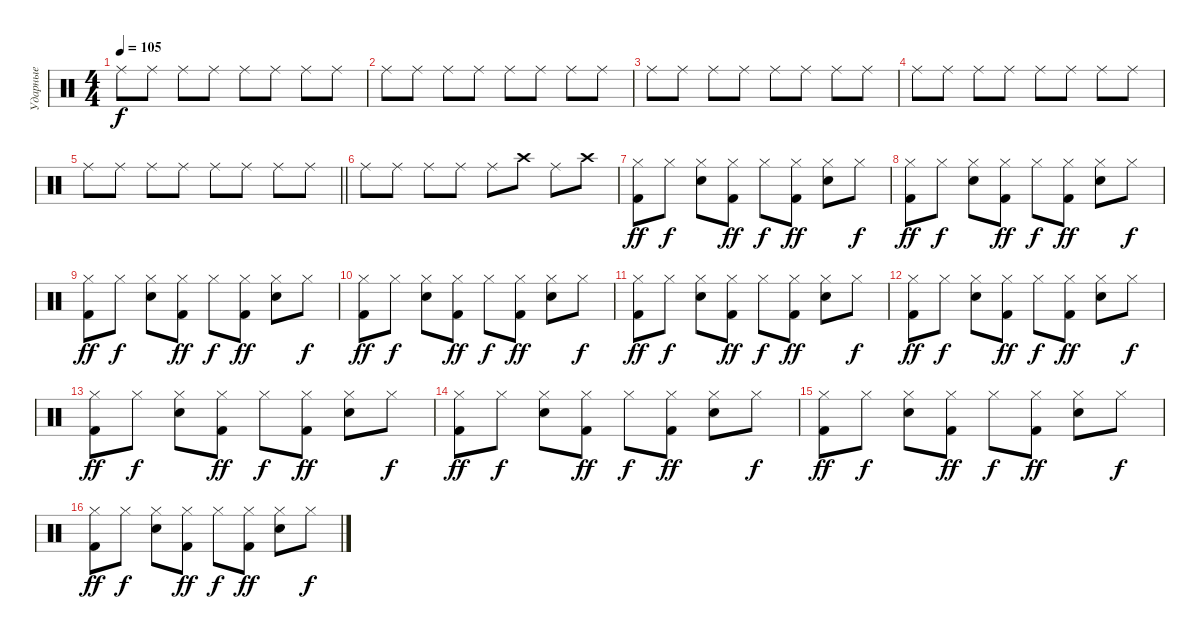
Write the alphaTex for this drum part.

\track ("Ударные" "Ударные") {solo instrument percussion}
\staff {score}
\articulation defaults
\ts (4 4)
\tempo 105
\clef neutral
\ks c "Ride (middle)".8{dy f} "Ride (middle)".8 "Ride (middle)".8 "Ride (middle)".8 "Ride (middle)".8 "Ride (middle)".8 "Ride (middle)".8 "Ride (middle)".8
|
"Ride (middle)".8 "Ride (middle)".8 "Ride (middle)".8 "Ride (middle)".8 "Ride (middle)".8 "Ride (middle)".8 "Ride (middle)".8 "Ride (middle)".8 |
"Ride (middle)".8 "Ride (middle)".8 "Ride (middle)".8 "Ride (middle)".8 "Ride (middle)".8 "Ride (middle)".8 "Ride (middle)".8 "Ride (middle)".8 |
"Ride (middle)".8 "Ride (middle)".8 "Ride (middle)".8 "Ride (middle)".8 "Ride (middle)".8 "Ride (middle)".8 "Ride (middle)".8 "Ride (middle)".8 |
\barLineRight lightlight "Ride (middle)".8 "Ride (middle)".8 "Ride (middle)".8 "Ride (middle)".8 "Ride (middle)".8 "Ride (middle)".8 "Ride (middle)".8 "Ride (middle)".8
|
\section ("" "")
"Ride (middle)".8 "Ride (middle)".8 "Ride (middle)".8 "Ride (middle)".8 "Ride (middle)".8 "Crash high (hit)".8 "Ride (middle)".8 "Crash high (hit)".8 |
("Kick (hit) 2" "Hi-Hat (closed)").8{dy ff} "Hi-Hat (closed)".8{dy f} ("Snare (hit) 2" "Hi-Hat (closed)").8 ("Kick (hit) 2" "Hi-Hat (closed)").8{dy ff} "Hi-Hat (closed)".8{dy f} ("Kick (hit) 2" "Hi-Hat (closed)").8{dy ff} ("Snare (hit) 2" "Hi-Hat (closed)").8 "Hi-Hat (closed)".8{dy f} |
("Kick (hit) 2" "Hi-Hat (closed)").8{dy ff} "Hi-Hat (closed)".8{dy f} ("Snare (hit) 2" "Hi-Hat (closed)").8 ("Kick (hit) 2" "Hi-Hat (closed)").8{dy ff} "Hi-Hat (closed)".8{dy f} ("Kick (hit) 2" "Hi-Hat (closed)").8{dy ff} ("Snare (hit) 2" "Hi-Hat (closed)").8 "Hi-Hat (closed)".8{dy f} |
("Kick (hit) 2" "Hi-Hat (closed)").8{dy ff} "Hi-Hat (closed)".8{dy f} ("Snare (hit) 2" "Hi-Hat (closed)").8 ("Kick (hit) 2" "Hi-Hat (closed)").8{dy ff} "Hi-Hat (closed)".8{dy f} ("Kick (hit) 2" "Hi-Hat (closed)").8{dy ff} ("Snare (hit) 2" "Hi-Hat (closed)").8 "Hi-Hat (closed)".8{dy f} |
("Kick (hit) 2" "Hi-Hat (closed)").8{dy ff} "Hi-Hat (closed)".8{dy f} ("Snare (hit) 2" "Hi-Hat (closed)").8 ("Kick (hit) 2" "Hi-Hat (closed)").8{dy ff} "Hi-Hat (closed)".8{dy f} ("Kick (hit) 2" "Hi-Hat (closed)").8{dy ff} ("Snare (hit) 2" "Hi-Hat (closed)").8 "Hi-Hat (closed)".8{dy f} |
("Kick (hit) 2" "Hi-Hat (closed)").8{dy ff} "Hi-Hat (closed)".8{dy f} ("Snare (hit) 2" "Hi-Hat (closed)").8 ("Kick (hit) 2" "Hi-Hat (closed)").8{dy ff} "Hi-Hat (closed)".8{dy f} ("Kick (hit) 2" "Hi-Hat (closed)").8{dy ff} ("Snare (hit) 2" "Hi-Hat (closed)").8 "Hi-Hat (closed)".8{dy f} |
("Kick (hit) 2" "Hi-Hat (closed)").8{dy ff} "Hi-Hat (closed)".8{dy f} ("Snare (hit) 2" "Hi-Hat (closed)").8 ("Kick (hit) 2" "Hi-Hat (closed)").8{dy ff} "Hi-Hat (closed)".8{dy f} ("Kick (hit) 2" "Hi-Hat (closed)").8{dy ff} ("Snare (hit) 2" "Hi-Hat (closed)").8 "Hi-Hat (closed)".8{dy f} |
("Kick (hit) 2" "Hi-Hat (closed)").8{dy ff} "Hi-Hat (closed)".8{dy f} ("Snare (hit) 2" "Hi-Hat (closed)").8 ("Kick (hit) 2" "Hi-Hat (closed)").8{dy ff} "Hi-Hat (closed)".8{dy f} ("Kick (hit) 2" "Hi-Hat (closed)").8{dy ff} ("Snare (hit) 2" "Hi-Hat (closed)").8 "Hi-Hat (closed)".8{dy f} |
("Kick (hit) 2" "Hi-Hat (closed)").8{dy ff} "Hi-Hat (closed)".8{dy f} ("Snare (hit) 2" "Hi-Hat (closed)").8 ("Kick (hit) 2" "Hi-Hat (closed)").8{dy ff} "Hi-Hat (closed)".8{dy f} ("Kick (hit) 2" "Hi-Hat (closed)").8{dy ff} ("Snare (hit) 2" "Hi-Hat (closed)").8 "Hi-Hat (closed)".8{dy f} |
("Kick (hit) 2" "Hi-Hat (closed)").8{dy ff} "Hi-Hat (closed)".8{dy f} ("Snare (hit) 2" "Hi-Hat (closed)").8 ("Kick (hit) 2" "Hi-Hat (closed)").8{dy ff} "Hi-Hat (closed)".8{dy f} ("Kick (hit) 2" "Hi-Hat (closed)").8{dy ff} ("Snare (hit) 2" "Hi-Hat (closed)").8 "Hi-Hat (closed)".8{dy f} |
("Kick (hit) 2" "Hi-Hat (closed)").8{dy ff} "Hi-Hat (closed)".8{dy f} ("Snare (hit) 2" "Hi-Hat (closed)").8 ("Kick (hit) 2" "Hi-Hat (closed)").8{dy ff} "Hi-Hat (closed)".8{dy f} ("Kick (hit) 2" "Hi-Hat (closed)").8{dy ff} ("Snare (hit) 2" "Hi-Hat (closed)").8 "Hi-Hat (closed)".8{dy f}
